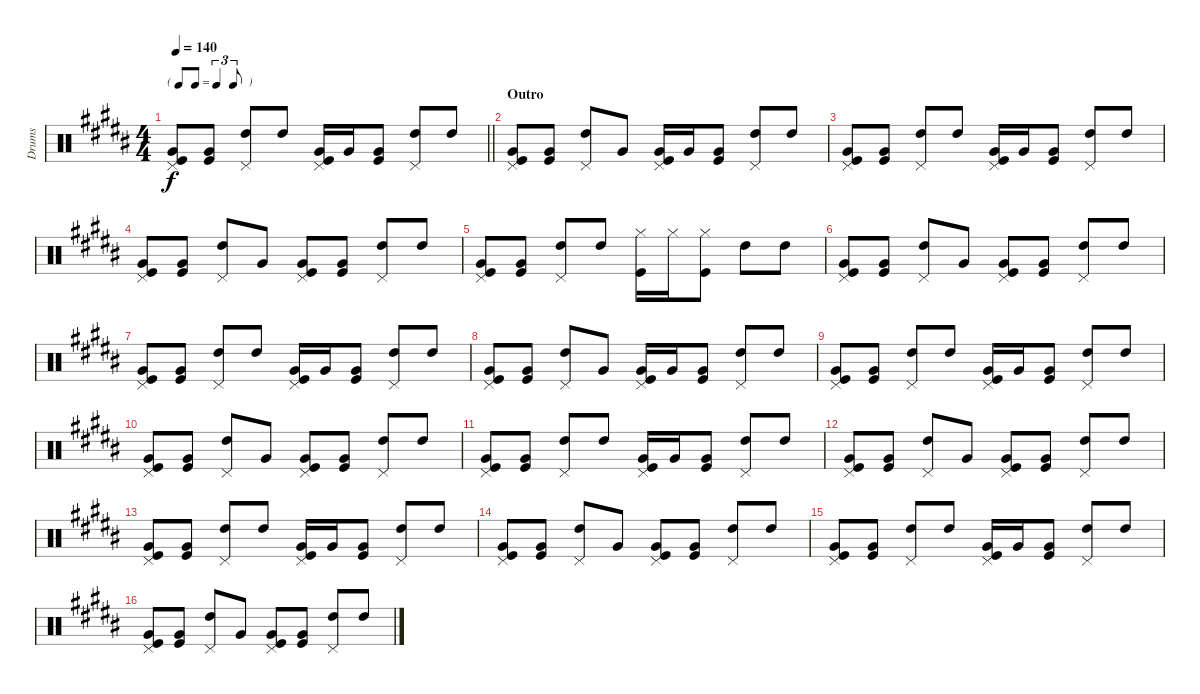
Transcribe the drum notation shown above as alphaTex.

\track ("Drums" "Drums") {instrument percussion}
\staff {score}
\articulation defaults
\ts (4 4)
\tf triplet8th
\tempo 140
\clef neutral
\barLineRight lightlight
\ks b
("Kick (hit)" "Very Low Tom (hit)" "Pedal Hi-Hat (hit)").8{dy f} ("Kick (hit)" "Very Low Tom (hit)").8 ("High Tom (hit)" "Pedal Hi-Hat (hit)").8 "High Tom (hit)".8 ("Very Low Tom (hit)" "Kick (hit)" "Pedal Hi-Hat (hit)").16 "Very Low Tom (hit)".16 ("Very Low Tom (hit)" "Kick (hit)").8 ("High Tom (hit)" "Pedal Hi-Hat (hit)").8 "High Tom (hit)".8 |
\section ("" "Outro")
("Kick (hit)" "Very Low Tom (hit)" "Pedal Hi-Hat (hit)").8 ("Kick (hit)" "Very Low Tom (hit)").8 ("High Tom (hit)" "Pedal Hi-Hat (hit)").8 "Very Low Tom (hit)".8 ("Very Low Tom (hit)" "Kick (hit)" "Pedal Hi-Hat (hit)").16 "Very Low Tom (hit)".16 ("Very Low Tom (hit)" "Kick (hit)").8 ("High Tom (hit)" "Pedal Hi-Hat (hit)").8 "High Tom (hit)".8 |
("Kick (hit)" "Very Low Tom (hit)" "Pedal Hi-Hat (hit)").8 ("Kick (hit)" "Very Low Tom (hit)").8 ("High Tom (hit)" "Pedal Hi-Hat (hit)").8 "High Tom (hit)".8 ("Very Low Tom (hit)" "Kick (hit)" "Pedal Hi-Hat (hit)").16 "Very Low Tom (hit)".16 ("Very Low Tom (hit)" "Kick (hit)").8 ("High Tom (hit)" "Pedal Hi-Hat (hit)").8 "High Tom (hit)".8 |
("Kick (hit)" "Very Low Tom (hit)" "Pedal Hi-Hat (hit)").8 ("Kick (hit)" "Very Low Tom (hit)").8 ("High Tom (hit)" "Pedal Hi-Hat (hit)").8 "Very Low Tom (hit)".8 ("Very Low Tom (hit)" "Kick (hit)" "Pedal Hi-Hat (hit)").8 ("Very Low Tom (hit)" "Kick (hit)").8 ("High Tom (hit)" "Pedal Hi-Hat (hit)").8 "High Tom (hit)".8 |
("Kick (hit)" "Very Low Tom (hit)" "Pedal Hi-Hat (hit)").8 ("Kick (hit)" "Very Low Tom (hit)").8 ("High Tom (hit)" "Pedal Hi-Hat (hit)").8 "High Tom (hit)".8 ("Hi-Hat (closed)" "Kick (hit)").16 "Hi-Hat (closed)".16 ("Hi-Hat (closed)" "Kick (hit)").8 "High Tom (hit)".8 "High Tom (hit)".8 |
("Kick (hit)" "Very Low Tom (hit)" "Pedal Hi-Hat (hit)").8 ("Kick (hit)" "Very Low Tom (hit)").8 ("High Tom (hit)" "Pedal Hi-Hat (hit)").8 "Very Low Tom (hit)".8 ("Very Low Tom (hit)" "Kick (hit)" "Pedal Hi-Hat (hit)").8 ("Very Low Tom (hit)" "Kick (hit)").8 ("High Tom (hit)" "Pedal Hi-Hat (hit)").8 "High Tom (hit)".8 |
("Kick (hit)" "Very Low Tom (hit)" "Pedal Hi-Hat (hit)").8 ("Kick (hit)" "Very Low Tom (hit)").8 ("High Tom (hit)" "Pedal Hi-Hat (hit)").8 "High Tom (hit)".8 ("Very Low Tom (hit)" "Kick (hit)" "Pedal Hi-Hat (hit)").16 "Very Low Tom (hit)".16 ("Very Low Tom (hit)" "Kick (hit)").8 ("High Tom (hit)" "Pedal Hi-Hat (hit)").8 "High Tom (hit)".8 |
("Kick (hit)" "Very Low Tom (hit)" "Pedal Hi-Hat (hit)").8 ("Kick (hit)" "Very Low Tom (hit)").8 ("High Tom (hit)" "Pedal Hi-Hat (hit)").8 "Very Low Tom (hit)".8 ("Very Low Tom (hit)" "Kick (hit)" "Pedal Hi-Hat (hit)").16 "Very Low Tom (hit)".16 ("Very Low Tom (hit)" "Kick (hit)").8 ("High Tom (hit)" "Pedal Hi-Hat (hit)").8 "High Tom (hit)".8 |
("Kick (hit)" "Very Low Tom (hit)" "Pedal Hi-Hat (hit)").8 ("Kick (hit)" "Very Low Tom (hit)").8 ("High Tom (hit)" "Pedal Hi-Hat (hit)").8 "High Tom (hit)".8 ("Very Low Tom (hit)" "Kick (hit)" "Pedal Hi-Hat (hit)").16 "Very Low Tom (hit)".16 ("Very Low Tom (hit)" "Kick (hit)").8 ("High Tom (hit)" "Pedal Hi-Hat (hit)").8 "High Tom (hit)".8 |
("Kick (hit)" "Very Low Tom (hit)" "Pedal Hi-Hat (hit)").8 ("Kick (hit)" "Very Low Tom (hit)").8 ("High Tom (hit)" "Pedal Hi-Hat (hit)").8 "Very Low Tom (hit)".8 ("Very Low Tom (hit)" "Kick (hit)" "Pedal Hi-Hat (hit)").8 ("Very Low Tom (hit)" "Kick (hit)").8 ("High Tom (hit)" "Pedal Hi-Hat (hit)").8 "High Tom (hit)".8 |
("Kick (hit)" "Very Low Tom (hit)" "Pedal Hi-Hat (hit)").8 ("Kick (hit)" "Very Low Tom (hit)").8 ("High Tom (hit)" "Pedal Hi-Hat (hit)").8 "High Tom (hit)".8 ("Very Low Tom (hit)" "Kick (hit)" "Pedal Hi-Hat (hit)").16 "Very Low Tom (hit)".16 ("Very Low Tom (hit)" "Kick (hit)").8 ("High Tom (hit)" "Pedal Hi-Hat (hit)").8 "High Tom (hit)".8 |
("Kick (hit)" "Very Low Tom (hit)" "Pedal Hi-Hat (hit)").8 ("Kick (hit)" "Very Low Tom (hit)").8 ("High Tom (hit)" "Pedal Hi-Hat (hit)").8 "Very Low Tom (hit)".8 ("Very Low Tom (hit)" "Kick (hit)" "Pedal Hi-Hat (hit)").8 ("Very Low Tom (hit)" "Kick (hit)").8 ("High Tom (hit)" "Pedal Hi-Hat (hit)").8 "High Tom (hit)".8 |
("Kick (hit)" "Very Low Tom (hit)" "Pedal Hi-Hat (hit)").8 ("Kick (hit)" "Very Low Tom (hit)").8 ("High Tom (hit)" "Pedal Hi-Hat (hit)").8 "High Tom (hit)".8 ("Very Low Tom (hit)" "Kick (hit)" "Pedal Hi-Hat (hit)").16 "Very Low Tom (hit)".16 ("Very Low Tom (hit)" "Kick (hit)").8 ("High Tom (hit)" "Pedal Hi-Hat (hit)").8 "High Tom (hit)".8 |
("Kick (hit)" "Very Low Tom (hit)" "Pedal Hi-Hat (hit)").8{volume 6} ("Kick (hit)" "Very Low Tom (hit)").8 ("High Tom (hit)" "Pedal Hi-Hat (hit)").8 "Very Low Tom (hit)".8 ("Very Low Tom (hit)" "Kick (hit)" "Pedal Hi-Hat (hit)").8 ("Very Low Tom (hit)" "Kick (hit)").8 ("High Tom (hit)" "Pedal Hi-Hat (hit)").8 "High Tom (hit)".8 |
("Kick (hit)" "Very Low Tom (hit)" "Pedal Hi-Hat (hit)").8 ("Kick (hit)" "Very Low Tom (hit)").8 ("High Tom (hit)" "Pedal Hi-Hat (hit)").8 "High Tom (hit)".8 ("Very Low Tom (hit)" "Kick (hit)" "Pedal Hi-Hat (hit)").16 "Very Low Tom (hit)".16 ("Very Low Tom (hit)" "Kick (hit)").8 ("High Tom (hit)" "Pedal Hi-Hat (hit)").8 "High Tom (hit)".8 |
("Kick (hit)" "Very Low Tom (hit)" "Pedal Hi-Hat (hit)").8 ("Kick (hit)" "Very Low Tom (hit)").8 ("High Tom (hit)" "Pedal Hi-Hat (hit)").8 "Very Low Tom (hit)".8 ("Very Low Tom (hit)" "Kick (hit)" "Pedal Hi-Hat (hit)").8 ("Very Low Tom (hit)" "Kick (hit)").8 ("High Tom (hit)" "Pedal Hi-Hat (hit)").8 "High Tom (hit)".8
